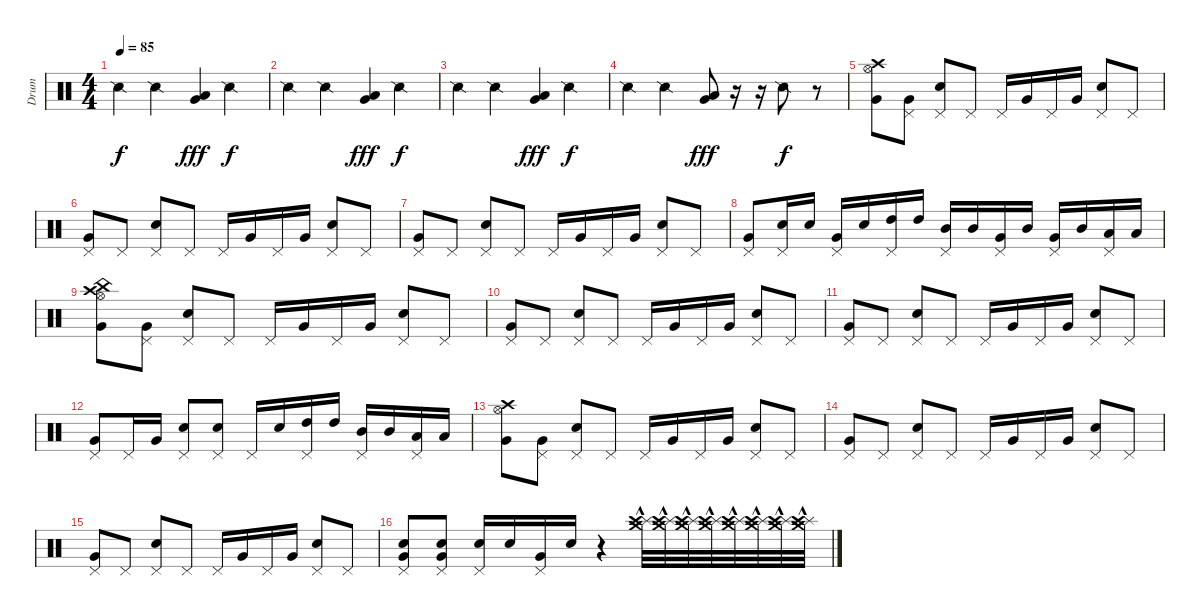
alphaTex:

\track ("Drum" "Drum") {instrument percussion}
\staff {score}
\articulation defaults
\ts (4 4)
\tempo 85
\clef neutral
\ks c "Snare (side stick) 2".4{dy f} "Snare (side stick) 2".4
("Low Floor Tom (hit)" "Very Low Tom (hit)").4{dy fff} "Snare (side stick) 2".4{dy f} |
"Snare (side stick) 2".4 "Snare (side stick) 2".4 ("Low Floor Tom (hit)" "Very Low Tom (hit)").4{dy fff} "Snare (side stick) 2".4{dy f} |
"Snare (side stick) 2".4 "Snare (side stick) 2".4 ("Low Floor Tom (hit)" "Very Low Tom (hit)").4{dy fff} "Snare (side stick) 2".4{dy f} |
"Snare (side stick) 2".4 "Snare (side stick) 2".4 ("Low Floor Tom (hit)" "Very Low Tom (hit)").8{dy fff} r.16 r.16 "Snare (side stick) 2".8{dy f} r.8 |
("Crash high (hit)" "Very Low Tom (hit)" "Hi-Hat (open)").8 ("Very Low Tom (hit)" "Pedal Hi-Hat (hit)").8 ("Snare (hit) 2" "Pedal Hi-Hat (hit)").8 "Pedal Hi-Hat (hit)".8 "Pedal Hi-Hat (hit)".16 "Very Low Tom (hit)".16 "Pedal Hi-Hat (hit)".16 "Very Low Tom (hit)".16 ("Snare (hit) 2" "Pedal Hi-Hat (hit)").8 "Pedal Hi-Hat (hit)".8 |
("Very Low Tom (hit)" "Pedal Hi-Hat (hit)").8 "Pedal Hi-Hat (hit)".8 ("Snare (hit) 2" "Pedal Hi-Hat (hit)").8 "Pedal Hi-Hat (hit)".8 "Pedal Hi-Hat (hit)".16 "Very Low Tom (hit)".16 "Pedal Hi-Hat (hit)".16 "Very Low Tom (hit)".16 ("Snare (hit) 2" "Pedal Hi-Hat (hit)").8 "Pedal Hi-Hat (hit)".8 |
("Very Low Tom (hit)" "Pedal Hi-Hat (hit)").8 "Pedal Hi-Hat (hit)".8 ("Snare (hit) 2" "Pedal Hi-Hat (hit)").8 "Pedal Hi-Hat (hit)".8 "Pedal Hi-Hat (hit)".16 "Very Low Tom (hit)".16 "Pedal Hi-Hat (hit)".16 "Very Low Tom (hit)".16 ("Snare (hit) 2" "Pedal Hi-Hat (hit)").8 "Pedal Hi-Hat (hit)".8 |
("Very Low Tom (hit)" "Pedal Hi-Hat (hit)").8 ("Snare (hit) 2" "Pedal Hi-Hat (hit)").16 "Snare (hit) 2".16 ("Very Low Tom (hit)" "Pedal Hi-Hat (hit)").16 "Snare (hit) 2".16 ("High Tom (hit)" "Pedal Hi-Hat (hit)").16 "High Tom (hit)".16 ("Mid Tom (hit)" "Pedal Hi-Hat (hit)").16 "Mid Tom (hit)".16 ("Very Low Tom (hit)" "Pedal Hi-Hat (hit)").16 "Mid Tom (hit)".16 ("Very Low Tom (hit)" "Pedal Hi-Hat (hit)").16 "Mid Tom (hit)".16 ("Low Tom (hit)" "Pedal Hi-Hat (hit)").16 "Low Tom (hit)".16 |
("Crash high (hit)" "China (hit)" "Very Low Tom (hit)" "Hi-Hat (open)").8 ("Very Low Tom (hit)" "Pedal Hi-Hat (hit)").8 ("Snare (hit) 2" "Pedal Hi-Hat (hit)").8 "Pedal Hi-Hat (hit)".8 "Pedal Hi-Hat (hit)".16 "Very Low Tom (hit)".16 "Pedal Hi-Hat (hit)".16 "Very Low Tom (hit)".16 ("Snare (hit) 2" "Pedal Hi-Hat (hit)").8 "Pedal Hi-Hat (hit)".8 |
("Very Low Tom (hit)" "Pedal Hi-Hat (hit)").8 "Pedal Hi-Hat (hit)".8 ("Snare (hit) 2" "Pedal Hi-Hat (hit)").8 "Pedal Hi-Hat (hit)".8 "Pedal Hi-Hat (hit)".16 "Very Low Tom (hit)".16 "Pedal Hi-Hat (hit)".16 "Very Low Tom (hit)".16 ("Snare (hit) 2" "Pedal Hi-Hat (hit)").8 "Pedal Hi-Hat (hit)".8 |
("Very Low Tom (hit)" "Pedal Hi-Hat (hit)").8 "Pedal Hi-Hat (hit)".8 ("Snare (hit) 2" "Pedal Hi-Hat (hit)").8 "Pedal Hi-Hat (hit)".8 "Pedal Hi-Hat (hit)".16 "Very Low Tom (hit)".16 "Pedal Hi-Hat (hit)".16 "Very Low Tom (hit)".16 ("Snare (hit) 2" "Pedal Hi-Hat (hit)").8 "Pedal Hi-Hat (hit)".8 |
("Very Low Tom (hit)" "Pedal Hi-Hat (hit)").8 "Pedal Hi-Hat (hit)".16 "Very Low Tom (hit)".16 ("Snare (hit) 2" "Pedal Hi-Hat (hit)").8 ("Snare (hit) 2" "Pedal Hi-Hat (hit)").8 "Pedal Hi-Hat (hit)".16 "Snare (hit) 2".16 ("High Tom (hit)" "Pedal Hi-Hat (hit)").16 "High Tom (hit)".16 ("Mid Tom (hit)" "Pedal Hi-Hat (hit)").16 "Mid Tom (hit)".16 ("Low Tom (hit)" "Pedal Hi-Hat (hit)").16 "Low Tom (hit)".16 |
("Crash high (hit)" "Very Low Tom (hit)" "Hi-Hat (open)").8 ("Very Low Tom (hit)" "Pedal Hi-Hat (hit)").8 ("Snare (hit) 2" "Pedal Hi-Hat (hit)").8 "Pedal Hi-Hat (hit)".8 "Pedal Hi-Hat (hit)".16 "Very Low Tom (hit)".16 "Pedal Hi-Hat (hit)".16 "Very Low Tom (hit)".16 ("Snare (hit) 2" "Pedal Hi-Hat (hit)").8 "Pedal Hi-Hat (hit)".8 |
("Very Low Tom (hit)" "Pedal Hi-Hat (hit)").8 "Pedal Hi-Hat (hit)".8 ("Snare (hit) 2" "Pedal Hi-Hat (hit)").8 "Pedal Hi-Hat (hit)".8 "Pedal Hi-Hat (hit)".16 "Very Low Tom (hit)".16 "Pedal Hi-Hat (hit)".16 "Very Low Tom (hit)".16 ("Snare (hit) 2" "Pedal Hi-Hat (hit)").8 "Pedal Hi-Hat (hit)".8 |
("Very Low Tom (hit)" "Pedal Hi-Hat (hit)").8 "Pedal Hi-Hat (hit)".8 ("Snare (hit) 2" "Pedal Hi-Hat (hit)").8 "Pedal Hi-Hat (hit)".8 "Pedal Hi-Hat (hit)".16 "Very Low Tom (hit)".16 "Pedal Hi-Hat (hit)".16 "Very Low Tom (hit)".16 ("Snare (hit) 2" "Pedal Hi-Hat (hit)").8 "Pedal Hi-Hat (hit)".8 |
("Snare (hit) 2" "Very Low Tom (hit)" "Pedal Hi-Hat (hit)").8 ("Snare (hit) 2" "Very Low Tom (hit)" "Pedal Hi-Hat (hit)").8 ("Snare (hit) 2" "Pedal Hi-Hat (hit)").16 "Snare (hit) 2".16 ("Very Low Tom (hit)" "Pedal Hi-Hat (hit)").16 "Snare (hit) 2".16 r.4{volume 3} ("Splash (hit)" "Crash medium (hit)"{hac} "Crash high (hit)"{hac}).32{volume 10} ("Splash (hit)" "Crash medium (hit)"{hac} "Crash high (hit)"{hac}).32 ("Splash (hit)" "Crash medium (hit)"{hac} "Crash high (hit)"{hac}).32 ("Splash (hit)" "Crash medium (hit)"{hac} "Crash high (hit)"{hac}).32 ("Splash (hit)" "Crash medium (hit)"{hac} "Crash high (hit)"{hac}).32 ("Splash (hit)" "Crash medium (hit)"{hac} "Crash high (hit)"{hac}).32 ("Splash (hit)" "Crash medium (hit)"{hac} "Crash high (hit)"{hac}).32 ("Splash (hit)" "Crash medium (hit)" "Crash high (hit)"{hac}).32
